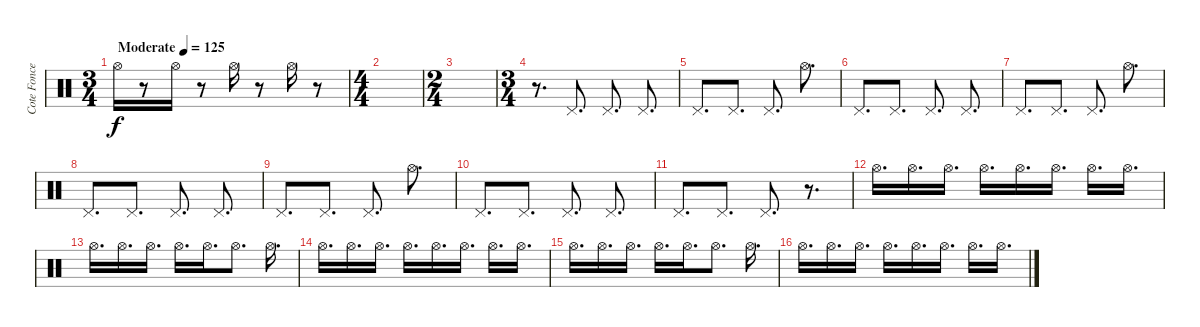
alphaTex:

\track ("Cote Foncea" "Cote Fonce") {instrument percussion}
\staff {score}
\articulation defaults
\ts (3 4)
\tempo (125 "Moderate")
\clef neutral
\ks c "Hi-Hat (open)".16{dy f}
r.8 "Hi-Hat (open)".16 r.8 "Hi-Hat (open)".16 r.8 "Hi-Hat (open)".16 r.8 |
\ts (4 4)
|
\ts (2 4)
|
\ts (3 4)
r.8{d} "Pedal Hi-Hat (hit)".8{d} "Pedal Hi-Hat (hit)".8{d} "Pedal Hi-Hat (hit)".8{d} |
"Pedal Hi-Hat (hit)".8{d} "Pedal Hi-Hat (hit)".8{d} "Pedal Hi-Hat (hit)".8{d} "Hi-Hat (open)".8{d} |
"Pedal Hi-Hat (hit)".8{d} "Pedal Hi-Hat (hit)".8{d} "Pedal Hi-Hat (hit)".8{d} "Pedal Hi-Hat (hit)".8{d} |
"Pedal Hi-Hat (hit)".8{d} "Pedal Hi-Hat (hit)".8{d} "Pedal Hi-Hat (hit)".8{d} "Hi-Hat (open)".8{d} |
"Pedal Hi-Hat (hit)".8{d} "Pedal Hi-Hat (hit)".8{d} "Pedal Hi-Hat (hit)".8{d} "Pedal Hi-Hat (hit)".8{d} |
"Pedal Hi-Hat (hit)".8{d} "Pedal Hi-Hat (hit)".8{d} "Pedal Hi-Hat (hit)".8{d} "Hi-Hat (open)".8{d} |
"Pedal Hi-Hat (hit)".8{d} "Pedal Hi-Hat (hit)".8{d} "Pedal Hi-Hat (hit)".8{d} "Pedal Hi-Hat (hit)".8{d} |
"Pedal Hi-Hat (hit)".8{d} "Pedal Hi-Hat (hit)".8{d} "Pedal Hi-Hat (hit)".8{d} r.8{d} |
"Hi-Hat (open)".16{d volume 10} "Hi-Hat (open)".16{d} "Hi-Hat (open)".16{d} "Hi-Hat (open)".16{d} "Hi-Hat (open)".16{d} "Hi-Hat (open)".16{d} "Hi-Hat (open)".16{d} "Hi-Hat (open)".16{d} |
"Hi-Hat (open)".16{d} "Hi-Hat (open)".16{d} "Hi-Hat (open)".16{d} "Hi-Hat (open)".16{d} "Hi-Hat (open)".16{d} "Hi-Hat (open)".8{d} "Hi-Hat (open)".16{d} |
"Hi-Hat (open)".16{d} "Hi-Hat (open)".16{d} "Hi-Hat (open)".16{d} "Hi-Hat (open)".16{d} "Hi-Hat (open)".16{d} "Hi-Hat (open)".16{d} "Hi-Hat (open)".16{d} "Hi-Hat (open)".16{d} |
"Hi-Hat (open)".16{d} "Hi-Hat (open)".16{d} "Hi-Hat (open)".16{d} "Hi-Hat (open)".16{d} "Hi-Hat (open)".16{d} "Hi-Hat (open)".8{d} "Hi-Hat (open)".16{d} |
"Hi-Hat (open)".16{d} "Hi-Hat (open)".16{d} "Hi-Hat (open)".16{d} "Hi-Hat (open)".16{d} "Hi-Hat (open)".16{d} "Hi-Hat (open)".16{d} "Hi-Hat (open)".16{d} "Hi-Hat (open)".16{d}
